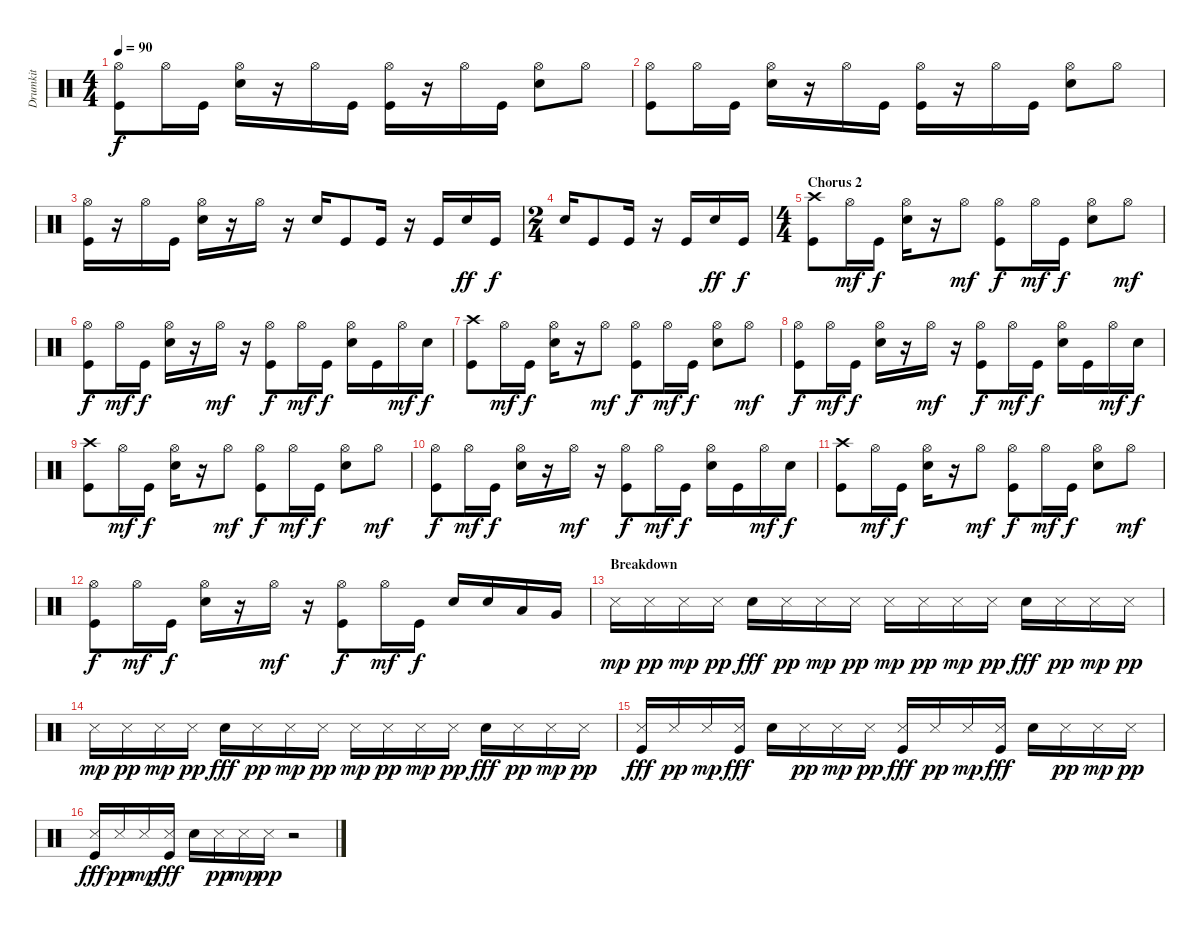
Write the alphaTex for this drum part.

\track ("Drumkit" "Drumkit") {instrument percussion}
\staff {score}
\articulation defaults
\ts (4 4)
\tempo 90
\clef neutral
\ks c
("Hi-Hat (open)" "Kick (hit)").8{dy f} "Hi-Hat (open)".16 "Kick (hit)".16 ("Hi-Hat (open)" "Snare (hit) 2").16 r.16 "Hi-Hat (open)".16 "Kick (hit)".16 ("Hi-Hat (open)" "Kick (hit)").16 r.16 "Hi-Hat (open)".16 "Kick (hit)".16 ("Hi-Hat (open)" "Snare (hit) 2").8 "Hi-Hat (open)".8 |
("Hi-Hat (open)" "Kick (hit)").8 "Hi-Hat (open)".16 "Kick (hit)".16 ("Hi-Hat (open)" "Snare (hit) 2").16 r.16 "Hi-Hat (open)".16 "Kick (hit)".16 ("Hi-Hat (open)" "Kick (hit)").16 r.16 "Hi-Hat (open)".16 "Kick (hit)".16 ("Hi-Hat (open)" "Snare (hit) 2").8 "Hi-Hat (open)".8 |
("Hi-Hat (open)" "Kick (hit)").16 r.16 "Hi-Hat (open)".16 "Kick (hit)".16 ("Hi-Hat (open)" "Snare (hit) 2").16 r.16 "Hi-Hat (open)".16 r.16 "Snare (hit) 2".16 "Kick (hit)".8 "Kick (hit)".16 r.16 "Kick (hit)".16 "Snare (hit) 2".16{dy ff} "Kick (hit)".16{dy f} |
\ts (2 4)
"Snare (hit) 2".16 "Kick (hit)".8 "Kick (hit)".16 r.16 "Kick (hit)".16 "Snare (hit) 2".16{dy ff} "Kick (hit)".16{dy f} |
\ts (4 4)
\section ("" "Chorus 2")
("Crash high (hit)" "Kick (hit)").8 "Hi-Hat (open)".16{dy mf} "Kick (hit)".16{dy f} ("Hi-Hat (open)" "Snare (hit) 2").16 r.16 "Hi-Hat (open)".8{dy mf} ("Hi-Hat (open)" "Kick (hit)").8{dy f} "Hi-Hat (open)".16{dy mf} "Kick (hit)".16{dy f} ("Hi-Hat (open)" "Snare (hit) 2").8 "Hi-Hat (open)".8{dy mf} |
("Hi-Hat (open)" "Kick (hit)").8{dy f} "Hi-Hat (open)".16{dy mf} "Kick (hit)".16{dy f} ("Hi-Hat (open)" "Snare (hit) 2").16 r.16 "Hi-Hat (open)".16{dy mf} r.16 ("Hi-Hat (open)" "Kick (hit)").8{dy f} "Hi-Hat (open)".16{dy mf} "Kick (hit)".16{dy f} ("Hi-Hat (open)" "Snare (hit) 2").16 "Kick (hit)".16 "Hi-Hat (open)".16{dy mf} "Snare (hit) 2".16{dy f} |
("Crash high (hit)" "Kick (hit)").8 "Hi-Hat (open)".16{dy mf} "Kick (hit)".16{dy f} ("Hi-Hat (open)" "Snare (hit) 2").16 r.16 "Hi-Hat (open)".8{dy mf} ("Hi-Hat (open)" "Kick (hit)").8{dy f} "Hi-Hat (open)".16{dy mf} "Kick (hit)".16{dy f} ("Hi-Hat (open)" "Snare (hit) 2").8 "Hi-Hat (open)".8{dy mf} |
("Hi-Hat (open)" "Kick (hit)").8{dy f} "Hi-Hat (open)".16{dy mf} "Kick (hit)".16{dy f} ("Hi-Hat (open)" "Snare (hit) 2").16 r.16 "Hi-Hat (open)".16{dy mf} r.16 ("Hi-Hat (open)" "Kick (hit)").8{dy f} "Hi-Hat (open)".16{dy mf} "Kick (hit)".16{dy f} ("Hi-Hat (open)" "Snare (hit) 2").16 "Kick (hit)".16 "Hi-Hat (open)".16{dy mf} "Snare (hit) 2".16{dy f} |
("Crash high (hit)" "Kick (hit)").8 "Hi-Hat (open)".16{dy mf} "Kick (hit)".16{dy f} ("Hi-Hat (open)" "Snare (hit) 2").16 r.16 "Hi-Hat (open)".8{dy mf} ("Hi-Hat (open)" "Kick (hit)").8{dy f} "Hi-Hat (open)".16{dy mf} "Kick (hit)".16{dy f} ("Hi-Hat (open)" "Snare (hit) 2").8 "Hi-Hat (open)".8{dy mf} |
("Hi-Hat (open)" "Kick (hit)").8{dy f} "Hi-Hat (open)".16{dy mf} "Kick (hit)".16{dy f} ("Hi-Hat (open)" "Snare (hit) 2").16 r.16 "Hi-Hat (open)".16{dy mf} r.16 ("Hi-Hat (open)" "Kick (hit)").8{dy f} "Hi-Hat (open)".16{dy mf} "Kick (hit)".16{dy f} ("Hi-Hat (open)" "Snare (hit) 2").16 "Kick (hit)".16 "Hi-Hat (open)".16{dy mf} "Snare (hit) 2".16{dy f} |
("Crash high (hit)" "Kick (hit)").8 "Hi-Hat (open)".16{dy mf} "Kick (hit)".16{dy f} ("Hi-Hat (open)" "Snare (hit) 2").16 r.16 "Hi-Hat (open)".8{dy mf} ("Hi-Hat (open)" "Kick (hit)").8{dy f} "Hi-Hat (open)".16{dy mf} "Kick (hit)".16{dy f} ("Hi-Hat (open)" "Snare (hit) 2").8 "Hi-Hat (open)".8{dy mf} |
("Hi-Hat (open)" "Kick (hit)").8{dy f} "Hi-Hat (open)".16{dy mf} "Kick (hit)".16{dy f} ("Hi-Hat (open)" "Snare (hit) 2").16 r.16 "Hi-Hat (open)".16{dy mf} r.16 ("Hi-Hat (open)" "Kick (hit)").8{dy f} "Hi-Hat (open)".16{dy mf} "Kick (hit)".16{dy f} "Snare (hit) 2".16 "Snare (hit) 2".16 "Low Tom (hit)".16 "Very Low Tom (hit)".16 |
\section ("" "Breakdown")
"Snare (side stick) 3".16{dy mp} "Snare (side stick) 3".16{dy pp} "Snare (side stick) 3".16{dy mp} "Snare (side stick) 3".16{dy pp} "Snare (hit) 2".16{dy fff} "Snare (side stick) 3".16{dy pp} "Snare (side stick) 3".16{dy mp} "Snare (side stick) 3".16{dy pp} "Snare (side stick) 3".16{dy mp} "Snare (side stick) 3".16{dy pp} "Snare (side stick) 3".16{dy mp} "Snare (side stick) 3".16{dy pp} "Snare (hit) 2".16{dy fff} "Snare (side stick) 3".16{dy pp} "Snare (side stick) 3".16{dy mp} "Snare (side stick) 3".16{dy pp} |
"Snare (side stick) 3".16{dy mp} "Snare (side stick) 3".16{dy pp} "Snare (side stick) 3".16{dy mp} "Snare (side stick) 3".16{dy pp} "Snare (hit) 2".16{dy fff} "Snare (side stick) 3".16{dy pp} "Snare (side stick) 3".16{dy mp} "Snare (side stick) 3".16{dy pp} "Snare (side stick) 3".16{dy mp} "Snare (side stick) 3".16{dy pp} "Snare (side stick) 3".16{dy mp} "Snare (side stick) 3".16{dy pp} "Snare (hit) 2".16{dy fff} "Snare (side stick) 3".16{dy pp} "Snare (side stick) 3".16{dy mp} "Snare (side stick) 3".16{dy pp} |
("Kick (hit)" "Snare (side stick) 3").16{dy fff} "Snare (side stick) 3".16{dy pp} "Snare (side stick) 3".16{dy mp} ("Kick (hit)" "Snare (side stick) 3").16{dy fff} "Snare (hit) 2".16 "Snare (side stick) 3".16{dy pp} "Snare (side stick) 3".16{dy mp} "Snare (side stick) 3".16{dy pp} ("Kick (hit)" "Snare (side stick) 3").16{dy fff} "Snare (side stick) 3".16{dy pp} "Snare (side stick) 3".16{dy mp} ("Kick (hit)" "Snare (side stick) 3").16{dy fff} "Snare (hit) 2".16 "Snare (side stick) 3".16{dy pp} "Snare (side stick) 3".16{dy mp} "Snare (side stick) 3".16{dy pp} |
("Kick (hit)" "Snare (side stick) 3").16{dy fff} "Snare (side stick) 3".16{dy pp} "Snare (side stick) 3".16{dy mp} ("Kick (hit)" "Snare (side stick) 3").16{dy fff} "Snare (hit) 2".16 "Snare (side stick) 3".16{dy pp} "Snare (side stick) 3".16{dy mp} "Snare (side stick) 3".16{dy pp} r.2
